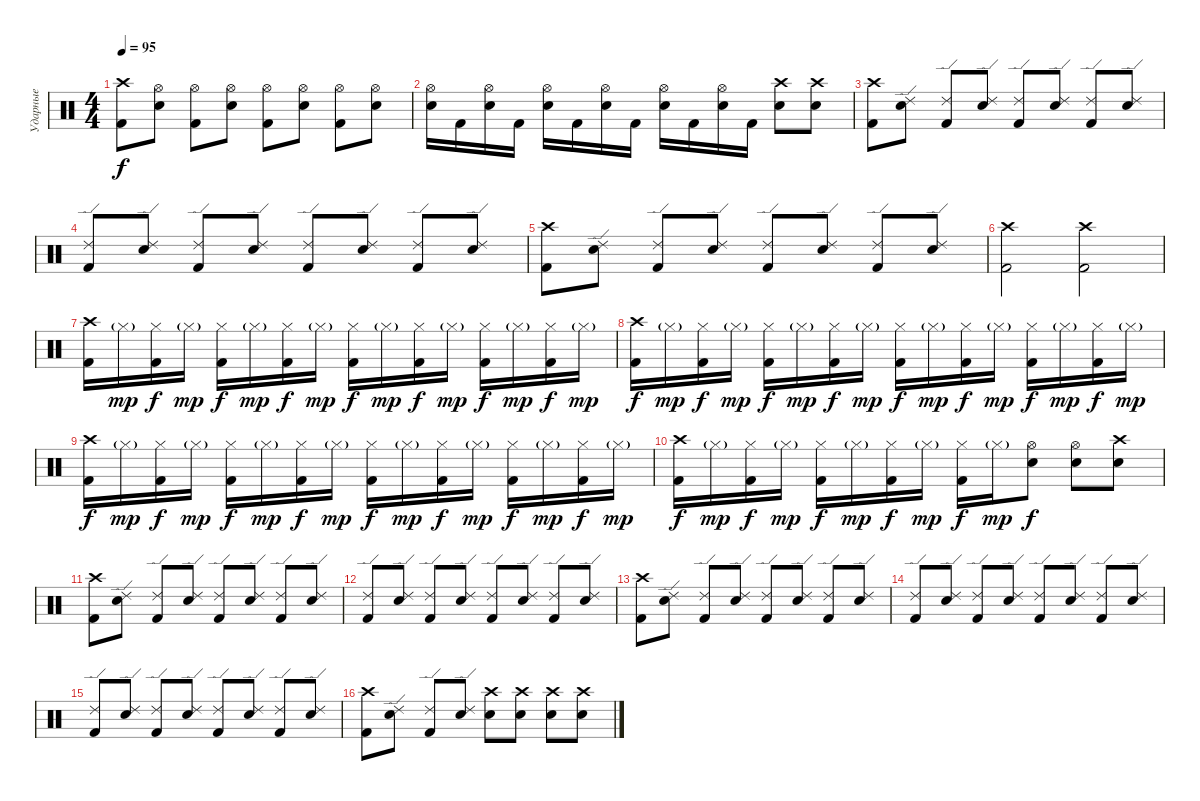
\track ("Ударные" "Ударные") {instrument percussion}
\staff {score}
\articulation defaults
\ts (4 4)
\tempo 95
\clef neutral
\ks c
("Kick (hit) 2" "Crash high (hit)").8{dy f} ("Electric Snare (hit)" "Hi-Hat (open)").8 ("Kick (hit) 2" "Hi-Hat (open)").8 ("Electric Snare (hit)" "Hi-Hat (open)").8 ("Kick (hit) 2" "Hi-Hat (open)").8 ("Electric Snare (hit)" "Hi-Hat (open)").8 ("Kick (hit) 2" "Hi-Hat (open)").8 ("Electric Snare (hit)" "Hi-Hat (open)").8 |
("Electric Snare (hit)" "Hi-Hat (open)").16 "Kick (hit) 2".16 ("Electric Snare (hit)" "Hi-Hat (open)").16 "Kick (hit) 2".16 ("Electric Snare (hit)" "Hi-Hat (open)").16 "Kick (hit) 2".16 ("Electric Snare (hit)" "Hi-Hat (open)").16 "Kick (hit) 2".16 ("Electric Snare (hit)" "Hi-Hat (open)").16 "Kick (hit) 2".16 ("Electric Snare (hit)" "Hi-Hat (open)").16 "Kick (hit) 2".16 ("Electric Snare (hit)" "Crash high (hit)").8 ("Electric Snare (hit)" "Crash high (hit)").8 |
("Kick (hit) 2" "Crash high (hit)").8 ("Electric Snare (hit)" "Ride (edge) 2").8 ("Kick (hit) 2" "Ride (edge) 2").8 ("Electric Snare (hit)" "Ride (edge) 2").8 ("Kick (hit) 2" "Ride (edge) 2").8 ("Electric Snare (hit)" "Ride (edge) 2").8 ("Kick (hit) 2" "Ride (edge) 2").8 ("Electric Snare (hit)" "Ride (edge) 2").8 |
("Kick (hit) 2" "Ride (edge) 2").8 ("Electric Snare (hit)" "Ride (edge) 2").8 ("Kick (hit) 2" "Ride (edge) 2").8 ("Electric Snare (hit)" "Ride (edge) 2").8 ("Kick (hit) 2" "Ride (edge) 2").8 ("Electric Snare (hit)" "Ride (edge) 2").8 ("Kick (hit) 2" "Ride (edge) 2").8 ("Electric Snare (hit)" "Ride (edge) 2").8 |
("Kick (hit) 2" "Crash high (hit)").8 ("Electric Snare (hit)" "Ride (edge) 2").8 ("Kick (hit) 2" "Ride (edge) 2").8 ("Electric Snare (hit)" "Ride (edge) 2").8 ("Kick (hit) 2" "Ride (edge) 2").8 ("Electric Snare (hit)" "Ride (edge) 2").8 ("Kick (hit) 2" "Ride (edge) 2").8 ("Electric Snare (hit)" "Ride (edge) 2").8 |
("Kick (hit) 2" "Crash high (hit)").2 ("Kick (hit) 2" "Crash high (hit)").2 |
("Kick (hit) 2" "Crash high (hit)").16 "Hi-Hat (closed)"{g}.16{dy mp} ("Kick (hit) 2" "Hi-Hat (closed)").16{dy f} "Hi-Hat (closed)"{g}.16{dy mp} ("Kick (hit) 2" "Hi-Hat (closed)").16{dy f} "Hi-Hat (closed)"{g}.16{dy mp} ("Kick (hit) 2" "Hi-Hat (closed)").16{dy f} "Hi-Hat (closed)"{g}.16{dy mp} ("Kick (hit) 2" "Hi-Hat (closed)").16{dy f} "Hi-Hat (closed)"{g}.16{dy mp} ("Kick (hit) 2" "Hi-Hat (closed)").16{dy f} "Hi-Hat (closed)"{g}.16{dy mp} ("Kick (hit) 2" "Hi-Hat (closed)").16{dy f} "Hi-Hat (closed)"{g}.16{dy mp} ("Kick (hit) 2" "Hi-Hat (closed)").16{dy f} "Hi-Hat (closed)"{g}.16{dy mp} |
("Kick (hit) 2" "Crash high (hit)").16{dy f} "Hi-Hat (closed)"{g}.16{dy mp} ("Kick (hit) 2" "Hi-Hat (closed)").16{dy f} "Hi-Hat (closed)"{g}.16{dy mp} ("Kick (hit) 2" "Hi-Hat (closed)").16{dy f} "Hi-Hat (closed)"{g}.16{dy mp} ("Kick (hit) 2" "Hi-Hat (closed)").16{dy f} "Hi-Hat (closed)"{g}.16{dy mp} ("Kick (hit) 2" "Hi-Hat (closed)").16{dy f} "Hi-Hat (closed)"{g}.16{dy mp} ("Kick (hit) 2" "Hi-Hat (closed)").16{dy f} "Hi-Hat (closed)"{g}.16{dy mp} ("Kick (hit) 2" "Hi-Hat (closed)").16{dy f} "Hi-Hat (closed)"{g}.16{dy mp} ("Kick (hit) 2" "Hi-Hat (closed)").16{dy f} "Hi-Hat (closed)"{g}.16{dy mp} |
("Kick (hit) 2" "Crash high (hit)").16{dy f} "Hi-Hat (closed)"{g}.16{dy mp} ("Kick (hit) 2" "Hi-Hat (closed)").16{dy f} "Hi-Hat (closed)"{g}.16{dy mp} ("Kick (hit) 2" "Hi-Hat (closed)").16{dy f} "Hi-Hat (closed)"{g}.16{dy mp} ("Kick (hit) 2" "Hi-Hat (closed)").16{dy f} "Hi-Hat (closed)"{g}.16{dy mp} ("Kick (hit) 2" "Hi-Hat (closed)").16{dy f} "Hi-Hat (closed)"{g}.16{dy mp} ("Kick (hit) 2" "Hi-Hat (closed)").16{dy f} "Hi-Hat (closed)"{g}.16{dy mp} ("Kick (hit) 2" "Hi-Hat (closed)").16{dy f} "Hi-Hat (closed)"{g}.16{dy mp} ("Kick (hit) 2" "Hi-Hat (closed)").16{dy f} "Hi-Hat (closed)"{g}.16{dy mp} |
("Kick (hit) 2" "Crash high (hit)").16{dy f} "Hi-Hat (closed)"{g}.16{dy mp} ("Kick (hit) 2" "Hi-Hat (closed)").16{dy f} "Hi-Hat (closed)"{g}.16{dy mp} ("Kick (hit) 2" "Hi-Hat (closed)").16{dy f} "Hi-Hat (closed)"{g}.16{dy mp} ("Kick (hit) 2" "Hi-Hat (closed)").16{dy f} "Hi-Hat (closed)"{g}.16{dy mp} ("Kick (hit) 2" "Hi-Hat (closed)").16{dy f} "Hi-Hat (closed)"{g}.16{dy mp} ("Electric Snare (hit)" "Hi-Hat (open)").8{dy f} ("Electric Snare (hit)" "Hi-Hat (open)").8 ("Electric Snare (hit)" "Crash high (hit)").8 |
("Kick (hit) 2" "Crash high (hit)").8 ("Electric Snare (hit)" "Ride (edge) 2").8 ("Kick (hit) 2" "Ride (edge) 2").8 ("Electric Snare (hit)" "Ride (edge) 2").8 ("Kick (hit) 2" "Ride (edge) 2").8 ("Electric Snare (hit)" "Ride (edge) 2").8 ("Kick (hit) 2" "Ride (edge) 2").8 ("Electric Snare (hit)" "Ride (edge) 2").8 |
("Kick (hit) 2" "Ride (edge) 2").8 ("Electric Snare (hit)" "Ride (edge) 2").8 ("Kick (hit) 2" "Ride (edge) 2").8 ("Electric Snare (hit)" "Ride (edge) 2").8 ("Kick (hit) 2" "Ride (edge) 2").8 ("Electric Snare (hit)" "Ride (edge) 2").8 ("Kick (hit) 2" "Ride (edge) 2").8 ("Electric Snare (hit)" "Ride (edge) 2").8 |
("Kick (hit) 2" "Crash high (hit)").8 ("Electric Snare (hit)" "Ride (edge) 2").8 ("Kick (hit) 2" "Ride (edge) 2").8 ("Electric Snare (hit)" "Ride (edge) 2").8 ("Kick (hit) 2" "Ride (edge) 2").8 ("Electric Snare (hit)" "Ride (edge) 2").8 ("Kick (hit) 2" "Ride (edge) 2").8 ("Electric Snare (hit)" "Ride (edge) 2").8 |
("Kick (hit) 2" "Ride (edge) 2").8 ("Electric Snare (hit)" "Ride (edge) 2").8 ("Kick (hit) 2" "Ride (edge) 2").8 ("Electric Snare (hit)" "Ride (edge) 2").8 ("Kick (hit) 2" "Ride (edge) 2").8 ("Electric Snare (hit)" "Ride (edge) 2").8 ("Kick (hit) 2" "Ride (edge) 2").8 ("Electric Snare (hit)" "Ride (edge) 2").8 |
("Kick (hit) 2" "Ride (edge) 2").8 ("Electric Snare (hit)" "Ride (edge) 2").8 ("Kick (hit) 2" "Ride (edge) 2").8 ("Electric Snare (hit)" "Ride (edge) 2").8 ("Kick (hit) 2" "Ride (edge) 2").8 ("Electric Snare (hit)" "Ride (edge) 2").8 ("Kick (hit) 2" "Ride (edge) 2").8 ("Electric Snare (hit)" "Ride (edge) 2").8 |
("Kick (hit) 2" "Crash high (hit)").8 ("Electric Snare (hit)" "Ride (edge) 2").8 ("Kick (hit) 2" "Ride (edge) 2").8 ("Electric Snare (hit)" "Ride (edge) 2").8 ("Electric Snare (hit)" "Crash high (hit)").8 ("Electric Snare (hit)" "Crash high (hit)").8 ("Electric Snare (hit)" "Crash high (hit)").8 ("Electric Snare (hit)" "Crash high (hit)").8
